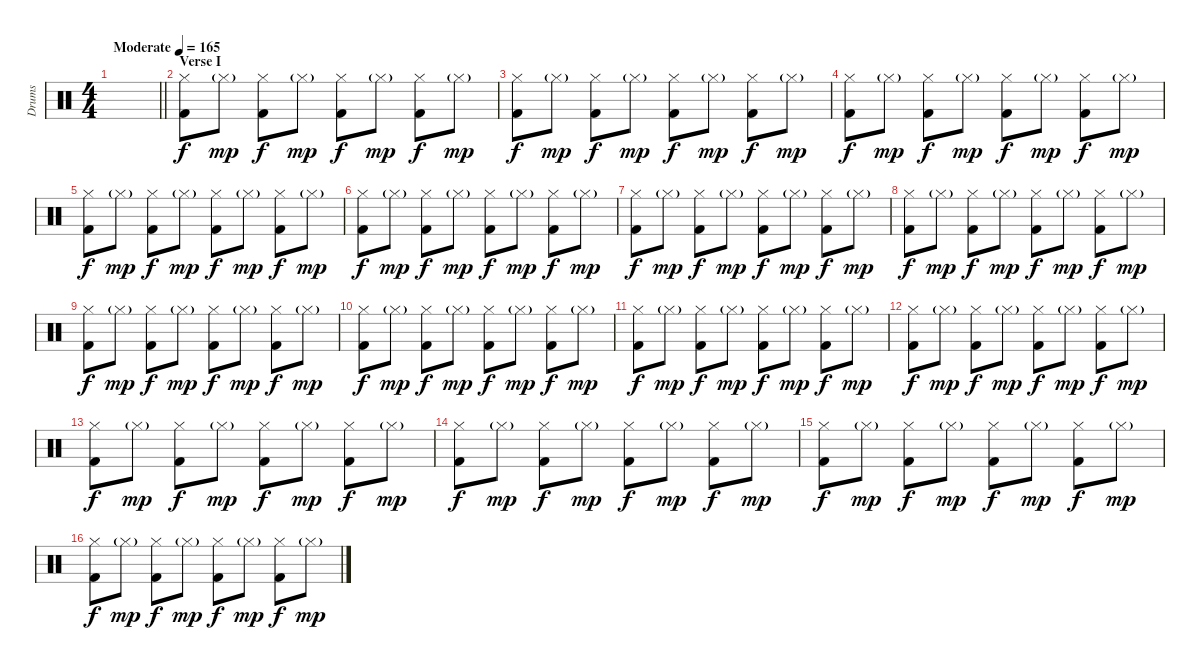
\track ("Drums" "Drums") {instrument percussion}
\staff {score}
\articulation defaults
\ts (4 4)
\tempo (165 "Moderate")
\clef neutral
\barLineRight lightlight
\ks c
|
\section ("" "Verse I")
("Hi-Hat (closed)" "Kick (hit) 2").8 "Hi-Hat (closed)"{g}.8{dy mp} ("Hi-Hat (closed)" "Kick (hit) 2").8{dy f} "Hi-Hat (closed)"{g}.8{dy mp} ("Hi-Hat (closed)" "Kick (hit) 2").8{dy f} "Hi-Hat (closed)"{g}.8{dy mp} ("Hi-Hat (closed)" "Kick (hit) 2").8{dy f} "Hi-Hat (closed)"{g}.8{dy mp} |
("Hi-Hat (closed)" "Kick (hit) 2").8{dy f} "Hi-Hat (closed)"{g}.8{dy mp} ("Hi-Hat (closed)" "Kick (hit) 2").8{dy f} "Hi-Hat (closed)"{g}.8{dy mp} ("Hi-Hat (closed)" "Kick (hit) 2").8{dy f} "Hi-Hat (closed)"{g}.8{dy mp} ("Hi-Hat (closed)" "Kick (hit) 2").8{dy f} "Hi-Hat (closed)"{g}.8{dy mp} |
("Hi-Hat (closed)" "Kick (hit) 2").8{dy f} "Hi-Hat (closed)"{g}.8{dy mp} ("Hi-Hat (closed)" "Kick (hit) 2").8{dy f} "Hi-Hat (closed)"{g}.8{dy mp} ("Hi-Hat (closed)" "Kick (hit) 2").8{dy f} "Hi-Hat (closed)"{g}.8{dy mp} ("Hi-Hat (closed)" "Kick (hit) 2").8{dy f} "Hi-Hat (closed)"{g}.8{dy mp} |
("Hi-Hat (closed)" "Kick (hit) 2").8{dy f} "Hi-Hat (closed)"{g}.8{dy mp} ("Hi-Hat (closed)" "Kick (hit) 2").8{dy f} "Hi-Hat (closed)"{g}.8{dy mp} ("Hi-Hat (closed)" "Kick (hit) 2").8{dy f} "Hi-Hat (closed)"{g}.8{dy mp} ("Hi-Hat (closed)" "Kick (hit) 2").8{dy f} "Hi-Hat (closed)"{g}.8{dy mp} |
("Hi-Hat (closed)" "Kick (hit) 2").8{dy f} "Hi-Hat (closed)"{g}.8{dy mp} ("Hi-Hat (closed)" "Kick (hit) 2").8{dy f} "Hi-Hat (closed)"{g}.8{dy mp} ("Hi-Hat (closed)" "Kick (hit) 2").8{dy f} "Hi-Hat (closed)"{g}.8{dy mp} ("Hi-Hat (closed)" "Kick (hit) 2").8{dy f} "Hi-Hat (closed)"{g}.8{dy mp} |
("Hi-Hat (closed)" "Kick (hit) 2").8{dy f} "Hi-Hat (closed)"{g}.8{dy mp} ("Hi-Hat (closed)" "Kick (hit) 2").8{dy f} "Hi-Hat (closed)"{g}.8{dy mp} ("Hi-Hat (closed)" "Kick (hit) 2").8{dy f} "Hi-Hat (closed)"{g}.8{dy mp} ("Hi-Hat (closed)" "Kick (hit) 2").8{dy f} "Hi-Hat (closed)"{g}.8{dy mp} |
("Hi-Hat (closed)" "Kick (hit) 2").8{dy f} "Hi-Hat (closed)"{g}.8{dy mp} ("Hi-Hat (closed)" "Kick (hit) 2").8{dy f} "Hi-Hat (closed)"{g}.8{dy mp} ("Hi-Hat (closed)" "Kick (hit) 2").8{dy f} "Hi-Hat (closed)"{g}.8{dy mp} ("Hi-Hat (closed)" "Kick (hit) 2").8{dy f} "Hi-Hat (closed)"{g}.8{dy mp} |
("Hi-Hat (closed)" "Kick (hit) 2").8{dy f} "Hi-Hat (closed)"{g}.8{dy mp} ("Hi-Hat (closed)" "Kick (hit) 2").8{dy f} "Hi-Hat (closed)"{g}.8{dy mp} ("Hi-Hat (closed)" "Kick (hit) 2").8{dy f} "Hi-Hat (closed)"{g}.8{dy mp} ("Hi-Hat (closed)" "Kick (hit) 2").8{dy f} "Hi-Hat (closed)"{g}.8{dy mp} |
("Hi-Hat (closed)" "Kick (hit) 2").8{dy f} "Hi-Hat (closed)"{g}.8{dy mp} ("Hi-Hat (closed)" "Kick (hit) 2").8{dy f} "Hi-Hat (closed)"{g}.8{dy mp} ("Hi-Hat (closed)" "Kick (hit) 2").8{dy f} "Hi-Hat (closed)"{g}.8{dy mp} ("Hi-Hat (closed)" "Kick (hit) 2").8{dy f} "Hi-Hat (closed)"{g}.8{dy mp} |
("Hi-Hat (closed)" "Kick (hit) 2").8{dy f} "Hi-Hat (closed)"{g}.8{dy mp} ("Hi-Hat (closed)" "Kick (hit) 2").8{dy f} "Hi-Hat (closed)"{g}.8{dy mp} ("Hi-Hat (closed)" "Kick (hit) 2").8{dy f} "Hi-Hat (closed)"{g}.8{dy mp} ("Hi-Hat (closed)" "Kick (hit) 2").8{dy f} "Hi-Hat (closed)"{g}.8{dy mp} |
("Hi-Hat (closed)" "Kick (hit) 2").8{dy f} "Hi-Hat (closed)"{g}.8{dy mp} ("Hi-Hat (closed)" "Kick (hit) 2").8{dy f} "Hi-Hat (closed)"{g}.8{dy mp} ("Hi-Hat (closed)" "Kick (hit) 2").8{dy f} "Hi-Hat (closed)"{g}.8{dy mp} ("Hi-Hat (closed)" "Kick (hit) 2").8{dy f} "Hi-Hat (closed)"{g}.8{dy mp} |
("Hi-Hat (closed)" "Kick (hit) 2").8{dy f} "Hi-Hat (closed)"{g}.8{dy mp} ("Hi-Hat (closed)" "Kick (hit) 2").8{dy f} "Hi-Hat (closed)"{g}.8{dy mp} ("Hi-Hat (closed)" "Kick (hit) 2").8{dy f} "Hi-Hat (closed)"{g}.8{dy mp} ("Hi-Hat (closed)" "Kick (hit) 2").8{dy f} "Hi-Hat (closed)"{g}.8{dy mp} |
("Hi-Hat (closed)" "Kick (hit) 2").8{dy f} "Hi-Hat (closed)"{g}.8{dy mp} ("Hi-Hat (closed)" "Kick (hit) 2").8{dy f} "Hi-Hat (closed)"{g}.8{dy mp} ("Hi-Hat (closed)" "Kick (hit) 2").8{dy f} "Hi-Hat (closed)"{g}.8{dy mp} ("Hi-Hat (closed)" "Kick (hit) 2").8{dy f} "Hi-Hat (closed)"{g}.8{dy mp} |
("Hi-Hat (closed)" "Kick (hit) 2").8{dy f} "Hi-Hat (closed)"{g}.8{dy mp} ("Hi-Hat (closed)" "Kick (hit) 2").8{dy f} "Hi-Hat (closed)"{g}.8{dy mp} ("Hi-Hat (closed)" "Kick (hit) 2").8{dy f} "Hi-Hat (closed)"{g}.8{dy mp} ("Hi-Hat (closed)" "Kick (hit) 2").8{dy f} "Hi-Hat (closed)"{g}.8{dy mp} |
("Hi-Hat (closed)" "Kick (hit) 2").8{dy f} "Hi-Hat (closed)"{g}.8{dy mp} ("Hi-Hat (closed)" "Kick (hit) 2").8{dy f} "Hi-Hat (closed)"{g}.8{dy mp} ("Hi-Hat (closed)" "Kick (hit) 2").8{dy f} "Hi-Hat (closed)"{g}.8{dy mp} ("Hi-Hat (closed)" "Kick (hit) 2").8{dy f} "Hi-Hat (closed)"{g}.8{dy mp}
